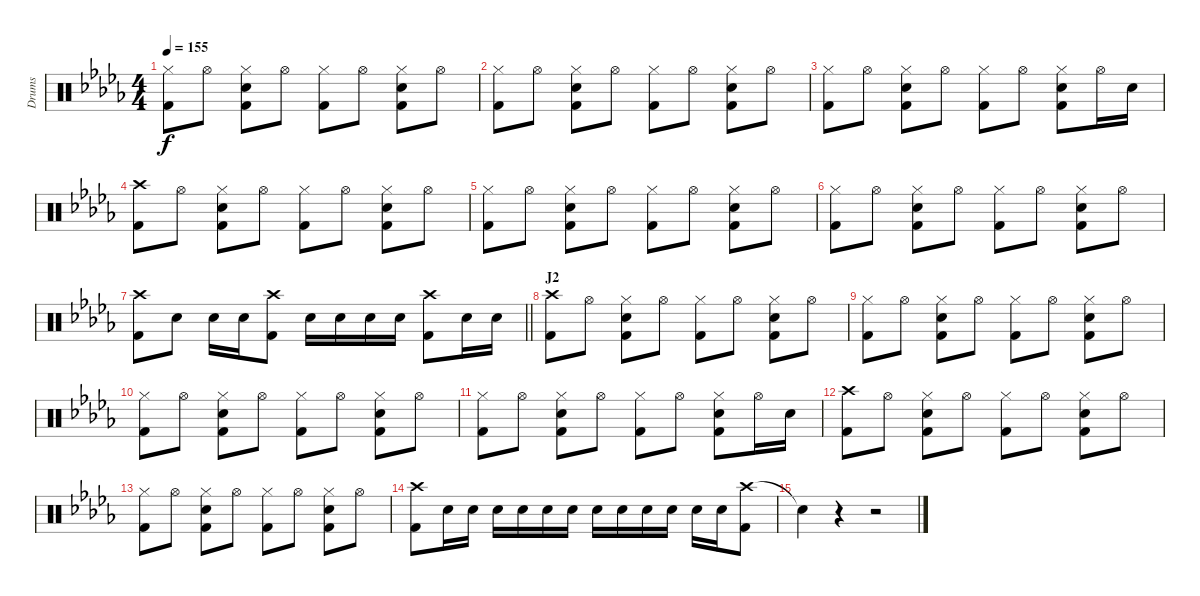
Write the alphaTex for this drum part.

\track ("Drums" "Drums") {instrument percussion}
\staff {score}
\articulation defaults
\ts (4 4)
\tempo 155
\clef neutral
\ks db
("Hi-Hat (closed)" "Kick (hit) 2").8{dy f} "Hi-Hat (open)".8 ("Hi-Hat (closed)" "Snare (hit) 2" "Kick (hit) 2").8 "Hi-Hat (open)".8 ("Hi-Hat (closed)" "Kick (hit) 2").8 "Hi-Hat (open)".8 ("Hi-Hat (closed)" "Snare (hit) 2" "Kick (hit) 2").8 "Hi-Hat (open)".8 |
("Hi-Hat (closed)" "Kick (hit) 2").8 "Hi-Hat (open)".8 ("Hi-Hat (closed)" "Snare (hit) 2" "Kick (hit) 2").8 "Hi-Hat (open)".8 ("Hi-Hat (closed)" "Kick (hit) 2").8 "Hi-Hat (open)".8 ("Hi-Hat (closed)" "Snare (hit) 2" "Kick (hit) 2").8 "Hi-Hat (open)".8 |
("Hi-Hat (closed)" "Kick (hit) 2").8 "Hi-Hat (open)".8 ("Hi-Hat (closed)" "Snare (hit) 2" "Kick (hit) 2").8 "Hi-Hat (open)".8 ("Hi-Hat (closed)" "Kick (hit) 2").8 "Hi-Hat (open)".8 ("Hi-Hat (closed)" "Snare (hit) 2" "Kick (hit) 2").8 "Hi-Hat (open)".16 "Snare (hit) 2".16 |
("Crash high (hit)" "Kick (hit) 2").8 "Hi-Hat (open)".8 ("Hi-Hat (closed)" "Snare (hit) 2" "Kick (hit) 2").8 "Hi-Hat (open)".8 ("Hi-Hat (closed)" "Kick (hit) 2").8 "Hi-Hat (open)".8 ("Hi-Hat (closed)" "Snare (hit) 2" "Kick (hit) 2").8 "Hi-Hat (open)".8 |
("Hi-Hat (closed)" "Kick (hit) 2").8 "Hi-Hat (open)".8 ("Hi-Hat (closed)" "Snare (hit) 2" "Kick (hit) 2").8 "Hi-Hat (open)".8 ("Hi-Hat (closed)" "Kick (hit) 2").8 "Hi-Hat (open)".8 ("Hi-Hat (closed)" "Snare (hit) 2" "Kick (hit) 2").8 "Hi-Hat (open)".8 |
("Hi-Hat (closed)" "Kick (hit) 2").8 "Hi-Hat (open)".8 ("Hi-Hat (closed)" "Snare (hit) 2" "Kick (hit) 2").8 "Hi-Hat (open)".8 ("Hi-Hat (closed)" "Kick (hit) 2").8 "Hi-Hat (open)".8 ("Hi-Hat (closed)" "Snare (hit) 2" "Kick (hit) 2").8 "Hi-Hat (open)".8 |
\barLineRight lightlight
("Crash high (hit)" "Kick (hit) 2").8 "Snare (hit) 2".8 "Snare (hit) 2".16 "Snare (hit) 2".16 ("Crash high (hit)" "Kick (hit) 2").8 "Snare (hit) 2".16 "Snare (hit) 2".16 "Snare (hit) 2".16 "Snare (hit) 2".16 ("Crash high (hit)" "Kick (hit) 2").8 "Snare (hit) 2".16 "Snare (hit) 2".16 |
\section ("" "J2")
("Crash high (hit)" "Kick (hit) 2").8 "Hi-Hat (open)".8 ("Hi-Hat (closed)" "Snare (hit) 2" "Kick (hit) 2").8 "Hi-Hat (open)".8 ("Hi-Hat (closed)" "Kick (hit) 2").8 "Hi-Hat (open)".8 ("Hi-Hat (closed)" "Snare (hit) 2" "Kick (hit) 2").8 "Hi-Hat (open)".8 |
("Hi-Hat (closed)" "Kick (hit) 2").8 "Hi-Hat (open)".8 ("Hi-Hat (closed)" "Snare (hit) 2" "Kick (hit) 2").8 "Hi-Hat (open)".8 ("Hi-Hat (closed)" "Kick (hit) 2").8 "Hi-Hat (open)".8 ("Hi-Hat (closed)" "Snare (hit) 2" "Kick (hit) 2").8 "Hi-Hat (open)".8 |
("Hi-Hat (closed)" "Kick (hit) 2").8 "Hi-Hat (open)".8 ("Hi-Hat (closed)" "Snare (hit) 2" "Kick (hit) 2").8 "Hi-Hat (open)".8 ("Hi-Hat (closed)" "Kick (hit) 2").8 "Hi-Hat (open)".8 ("Hi-Hat (closed)" "Snare (hit) 2" "Kick (hit) 2").8 "Hi-Hat (open)".8 |
("Hi-Hat (closed)" "Kick (hit) 2").8 "Hi-Hat (open)".8 ("Hi-Hat (closed)" "Snare (hit) 2" "Kick (hit) 2").8 "Hi-Hat (open)".8 ("Hi-Hat (closed)" "Kick (hit) 2").8 "Hi-Hat (open)".8 ("Hi-Hat (closed)" "Snare (hit) 2" "Kick (hit) 2").8 "Hi-Hat (open)".16 "Snare (hit) 2".16 |
("Crash high (hit)" "Kick (hit) 2").8 "Hi-Hat (open)".8 ("Hi-Hat (closed)" "Snare (hit) 2" "Kick (hit) 2").8 "Hi-Hat (open)".8 ("Hi-Hat (closed)" "Kick (hit) 2").8 "Hi-Hat (open)".8 ("Hi-Hat (closed)" "Snare (hit) 2" "Kick (hit) 2").8 "Hi-Hat (open)".8 |
("Hi-Hat (closed)" "Kick (hit) 2").8 "Hi-Hat (open)".8 ("Hi-Hat (closed)" "Snare (hit) 2" "Kick (hit) 2").8 "Hi-Hat (open)".8 ("Hi-Hat (closed)" "Kick (hit) 2").8 "Hi-Hat (open)".8 ("Hi-Hat (closed)" "Snare (hit) 2" "Kick (hit) 2").8 "Hi-Hat (open)".8 |
("Crash high (hit)" "Kick (hit) 2").8 "Snare (hit) 2".16 "Snare (hit) 2".16 "Snare (hit) 2".16 "Snare (hit) 2".16 "Snare (hit) 2".16 "Snare (hit) 2".16 "Snare (hit) 2".16 "Snare (hit) 2".16 "Snare (hit) 2".16 "Snare (hit) 2".16 "Snare (hit) 2".16 "Snare (hit) 2".16 ("Crash high (hit)" "Kick (hit) 2").8 |
"Snare (hit)"{t}.4 r.4 r.2
